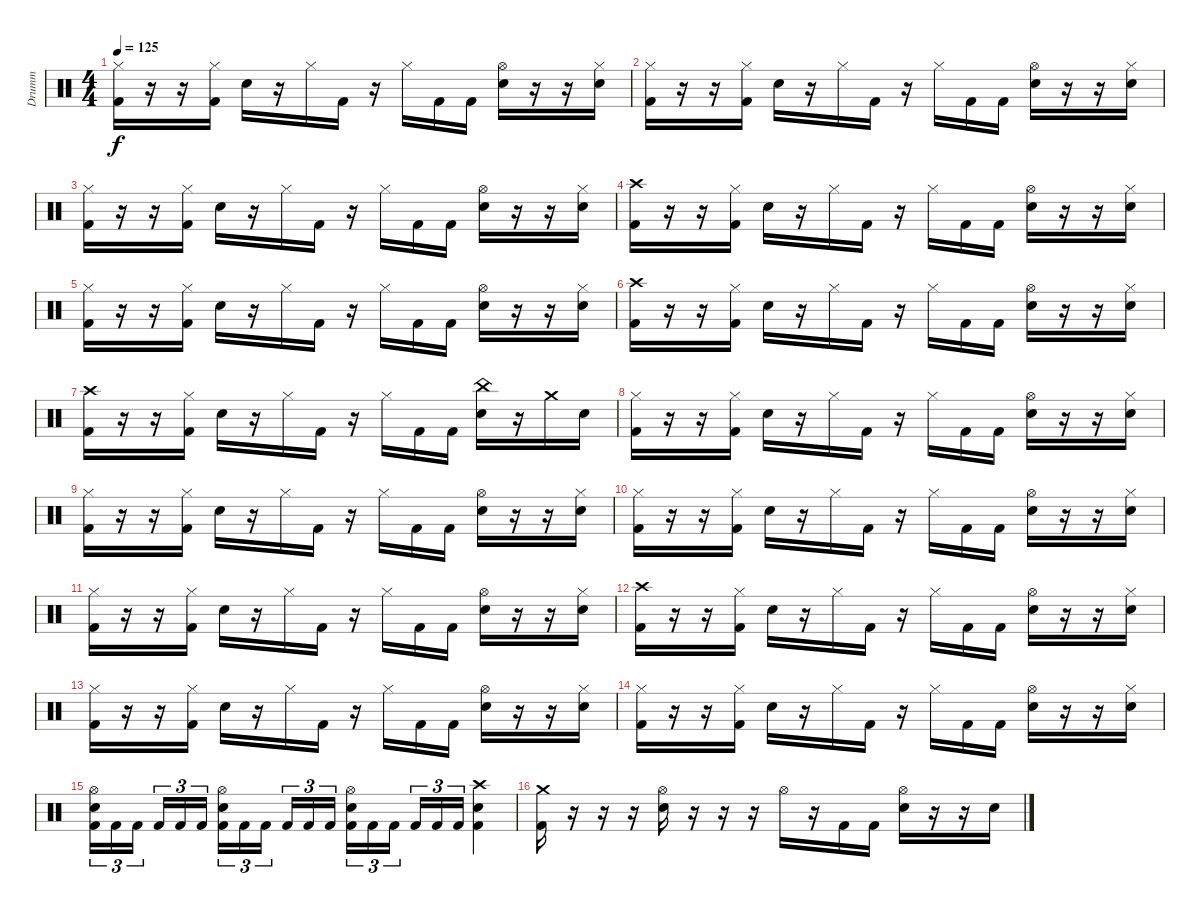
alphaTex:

\track ("Drumm" "Drumm") {instrument percussion}
\staff {score}
\articulation defaults
\ts (4 4)
\tempo 125
\clef neutral
\ks c
("Hi-Hat (closed)" "Kick (hit) 2").16{dy f} r.16 r.16 ("Hi-Hat (closed)" "Kick (hit) 2").16 "Electric Snare (hit)".16 r.16 "Hi-Hat (closed)".16 "Kick (hit) 2".16 r.16 "Hi-Hat (closed)".16 "Kick (hit) 2".16 "Kick (hit) 2".16 ("Hi-Hat (open)" "Electric Snare (hit)").16 r.16 r.16 ("Hi-Hat (closed)" "Electric Snare (hit)").16 |
("Hi-Hat (closed)" "Kick (hit) 2").16 r.16 r.16 ("Hi-Hat (closed)" "Kick (hit) 2").16 "Electric Snare (hit)".16 r.16 "Hi-Hat (closed)".16 "Kick (hit) 2".16 r.16 "Hi-Hat (closed)".16 "Kick (hit) 2".16 "Kick (hit) 2".16 ("Hi-Hat (open)" "Electric Snare (hit)").16 r.16 r.16 ("Hi-Hat (closed)" "Electric Snare (hit)").16 |
("Hi-Hat (closed)" "Kick (hit) 2").16 r.16 r.16 ("Hi-Hat (closed)" "Kick (hit) 2").16 "Electric Snare (hit)".16 r.16 "Hi-Hat (closed)".16 "Kick (hit) 2".16 r.16 "Hi-Hat (closed)".16 "Kick (hit) 2".16 "Kick (hit) 2".16 ("Hi-Hat (open)" "Electric Snare (hit)").16 r.16 r.16 ("Hi-Hat (closed)" "Electric Snare (hit)").16 |
("Crash high (hit)" "Kick (hit) 2").16 r.16 r.16 ("Hi-Hat (closed)" "Kick (hit) 2").16 "Electric Snare (hit)".16 r.16 "Hi-Hat (closed)".16 "Kick (hit) 2".16 r.16 "Hi-Hat (closed)".16 "Kick (hit) 2".16 "Kick (hit) 2".16 ("Hi-Hat (open)" "Electric Snare (hit)").16 r.16 r.16 ("Hi-Hat (closed)" "Electric Snare (hit)").16 |
("Hi-Hat (closed)" "Kick (hit) 2").16 r.16 r.16 ("Hi-Hat (closed)" "Kick (hit) 2").16 "Electric Snare (hit)".16 r.16 "Hi-Hat (closed)".16 "Kick (hit) 2".16 r.16 "Hi-Hat (closed)".16 "Kick (hit) 2".16 "Kick (hit) 2".16 ("Hi-Hat (open)" "Electric Snare (hit)").16 r.16 r.16 ("Hi-Hat (closed)" "Electric Snare (hit)").16 |
("Crash high (hit)" "Kick (hit) 2").16 r.16 r.16 ("Hi-Hat (closed)" "Kick (hit) 2").16 "Electric Snare (hit)".16 r.16 "Hi-Hat (closed)".16 "Kick (hit) 2".16 r.16 "Hi-Hat (closed)".16 "Kick (hit) 2".16 "Kick (hit) 2".16 ("Hi-Hat (open)" "Electric Snare (hit)").16 r.16 r.16 ("Hi-Hat (closed)" "Electric Snare (hit)").16 |
("Crash high (hit)" "Kick (hit) 2").16 r.16 r.16 ("Hi-Hat (closed)" "Kick (hit) 2").16 "Electric Snare (hit)".16 r.16 "Hi-Hat (closed)".16 "Kick (hit) 2".16 r.16 "Hi-Hat (closed)".16 "Kick (hit) 2".16 "Kick (hit) 2".16 ("China (hit)" "Electric Snare (hit)").16 r.16 "Crash medium (hit)".16 "Electric Snare (hit)".16 |
("Hi-Hat (closed)" "Kick (hit) 2").16 r.16 r.16 ("Hi-Hat (closed)" "Kick (hit) 2").16 "Electric Snare (hit)".16 r.16 "Hi-Hat (closed)".16 "Kick (hit) 2".16 r.16 "Hi-Hat (closed)".16 "Kick (hit) 2".16 "Kick (hit) 2".16 ("Hi-Hat (open)" "Electric Snare (hit)").16 r.16 r.16 ("Hi-Hat (closed)" "Electric Snare (hit)").16 |
("Hi-Hat (closed)" "Kick (hit) 2").16 r.16 r.16 ("Hi-Hat (closed)" "Kick (hit) 2").16 "Electric Snare (hit)".16 r.16 "Hi-Hat (closed)".16 "Kick (hit) 2".16 r.16 "Hi-Hat (closed)".16 "Kick (hit) 2".16 "Kick (hit) 2".16 ("Hi-Hat (open)" "Electric Snare (hit)").16 r.16 r.16 ("Hi-Hat (closed)" "Electric Snare (hit)").16 |
("Hi-Hat (closed)" "Kick (hit) 2").16 r.16 r.16 ("Hi-Hat (closed)" "Kick (hit) 2").16 "Electric Snare (hit)".16 r.16 "Hi-Hat (closed)".16 "Kick (hit) 2".16 r.16 "Hi-Hat (closed)".16 "Kick (hit) 2".16 "Kick (hit) 2".16 ("Hi-Hat (open)" "Electric Snare (hit)").16 r.16 r.16 ("Hi-Hat (closed)" "Electric Snare (hit)").16 |
("Hi-Hat (closed)" "Kick (hit) 2").16 r.16 r.16 ("Hi-Hat (closed)" "Kick (hit) 2").16 "Electric Snare (hit)".16 r.16 "Hi-Hat (closed)".16 "Kick (hit) 2".16 r.16 "Hi-Hat (closed)".16 "Kick (hit) 2".16 "Kick (hit) 2".16 ("Hi-Hat (open)" "Electric Snare (hit)").16 r.16 r.16 ("Hi-Hat (closed)" "Electric Snare (hit)").16 |
("Crash high (hit)" "Kick (hit) 2").16 r.16 r.16 ("Hi-Hat (closed)" "Kick (hit) 2").16 "Electric Snare (hit)".16 r.16 "Hi-Hat (closed)".16 "Kick (hit) 2".16 r.16 "Hi-Hat (closed)".16 "Kick (hit) 2".16 "Kick (hit) 2".16 ("Hi-Hat (open)" "Electric Snare (hit)").16 r.16 r.16 ("Hi-Hat (closed)" "Electric Snare (hit)").16 |
("Hi-Hat (closed)" "Kick (hit) 2").16 r.16 r.16 ("Hi-Hat (closed)" "Kick (hit) 2").16 "Electric Snare (hit)".16 r.16 "Hi-Hat (closed)".16 "Kick (hit) 2".16 r.16 "Hi-Hat (closed)".16 "Kick (hit) 2".16 "Kick (hit) 2".16 ("Hi-Hat (open)" "Electric Snare (hit)").16 r.16 r.16 ("Hi-Hat (closed)" "Electric Snare (hit)").16 |
("Hi-Hat (closed)" "Kick (hit) 2").16 r.16 r.16 ("Hi-Hat (closed)" "Kick (hit) 2").16 "Electric Snare (hit)".16 r.16 "Hi-Hat (closed)".16 "Kick (hit) 2".16 r.16 "Hi-Hat (closed)".16 "Kick (hit) 2".16 "Kick (hit) 2".16 ("Hi-Hat (open)" "Electric Snare (hit)").16 r.16 r.16 ("Hi-Hat (closed)" "Electric Snare (hit)").16 |
("Hi-Hat (open)" "Electric Snare (hit)" "Kick (hit) 2").16{tu (3 2)} "Kick (hit) 2".16{tu (3 2)} "Kick (hit) 2".16{tu (3 2)} "Kick (hit) 2".16{tu (3 2)} "Kick (hit) 2".16{tu (3 2)} "Kick (hit) 2".16{tu (3 2)} ("Hi-Hat (open)" "Electric Snare (hit)" "Kick (hit) 2").16{tu (3 2)} "Kick (hit) 2".16{tu (3 2)} "Kick (hit) 2".16{tu (3 2)} "Kick (hit) 2".16{tu (3 2)} "Kick (hit) 2".16{tu (3 2)} "Kick (hit) 2".16{tu (3 2)} ("Hi-Hat (open)" "Electric Snare (hit)" "Kick (hit) 2").16{tu (3 2)} "Kick (hit) 2".16{tu (3 2)} "Kick (hit) 2".16{tu (3 2)} "Kick (hit) 2".16{tu (3 2)} "Kick (hit) 2".16{tu (3 2)} "Kick (hit) 2".16{tu (3 2)} ("Crash high (hit)" "Electric Snare (hit)" "Kick (hit) 2").4 |
("Crash medium (hit)" "Kick (hit) 2").16 r.16 r.16 r.16 ("Hi-Hat (open)" "Electric Snare (hit)").16 r.16 r.16 r.16 "Hi-Hat (open)".16 r.16 "Kick (hit) 2".16 "Kick (hit) 2".16 ("Hi-Hat (open)" "Electric Snare (hit)").16 r.16 r.16 "Electric Snare (hit)".16
